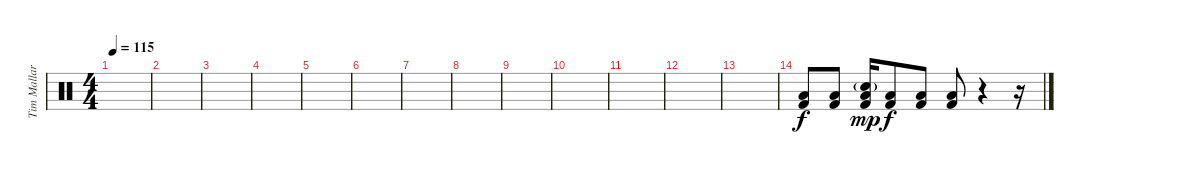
\track ("Tim Mallare" "Tim Mallar") {instrument percussion}
\staff {score}
\articulation defaults
\ts (4 4)
\tempo 115
\clef neutral
\ks c
|
|
|
|
|
|
|
|
|
|
|
|
|
("Low Floor Tom (hit)" "Kick (hit) 2").8 ("Low Floor Tom (hit)" "Kick (hit) 2").8 ("Low Floor Tom (hit)" "Kick (hit) 2" "Electric Snare (hit)"{g}).16{dy mp} ("Low Floor Tom (hit)" "Kick (hit) 2").8{dy f} ("Low Floor Tom (hit)" "Kick (hit) 2").8 ("Low Floor Tom (hit)" "Kick (hit) 2").8 r.4 r.16
